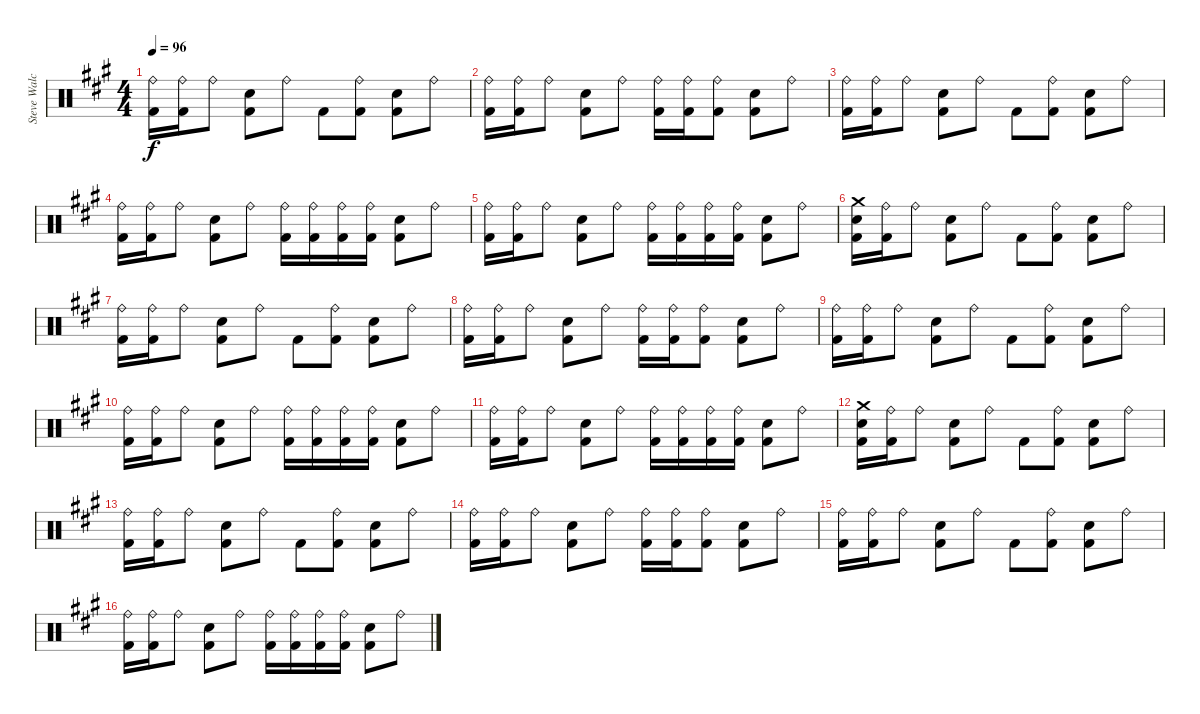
\track ("Steve Walchoz" "Steve Walc") {instrument percussion}
\staff {score}
\articulation defaults
\ts (4 4)
\tempo 96
\clef neutral
\ks a
("Ride (bell)" "Kick (hit) 2").16{dy f} ("Ride (bell)" "Kick (hit) 2").16 "Ride (bell)".8 ("Snare (hit) 2" "Kick (hit) 2").8 "Ride (bell)".8 "Kick (hit) 2".8 ("Ride (bell)" "Kick (hit) 2").8 ("Snare (hit) 2" "Kick (hit) 2").8 "Ride (bell)".8 |
("Ride (bell)" "Kick (hit) 2").16 ("Ride (bell)" "Kick (hit) 2").16 "Ride (bell)".8 ("Snare (hit) 2" "Kick (hit) 2").8 "Ride (bell)".8 ("Ride (bell)" "Kick (hit) 2").16 ("Ride (bell)" "Kick (hit) 2").16 ("Ride (bell)" "Kick (hit) 2").8 ("Snare (hit) 2" "Kick (hit) 2").8 "Ride (bell)".8 |
("Ride (bell)" "Kick (hit) 2").16 ("Ride (bell)" "Kick (hit) 2").16 "Ride (bell)".8 ("Snare (hit) 2" "Kick (hit) 2").8 "Ride (bell)".8 "Kick (hit) 2".8 ("Ride (bell)" "Kick (hit) 2").8 ("Snare (hit) 2" "Kick (hit) 2").8 "Ride (bell)".8 |
("Ride (bell)" "Kick (hit) 2").16 ("Ride (bell)" "Kick (hit) 2").16 "Ride (bell)".8 ("Snare (hit) 2" "Kick (hit) 2").8 "Ride (bell)".8 ("Ride (bell)" "Kick (hit) 2").16 ("Ride (bell)" "Kick (hit) 2").16 ("Ride (bell)" "Kick (hit) 2").16 ("Ride (bell)" "Kick (hit) 2").16 ("Snare (hit) 2" "Kick (hit) 2").8 "Ride (bell)".8 |
("Ride (bell)" "Kick (hit) 2").16 ("Ride (bell)" "Kick (hit) 2").16 "Ride (bell)".8 ("Snare (hit) 2" "Kick (hit) 2").8 "Ride (bell)".8 ("Ride (bell)" "Kick (hit) 2").16 ("Ride (bell)" "Kick (hit) 2").16 ("Ride (bell)" "Kick (hit) 2").16 ("Ride (bell)" "Kick (hit) 2").16 ("Snare (hit) 2" "Kick (hit) 2").8 "Ride (bell)".8 |
("Crash medium (hit)" "Snare (hit) 2" "Kick (hit) 2").16 ("Ride (bell)" "Kick (hit) 2").16 "Ride (bell)".8 ("Snare (hit) 2" "Kick (hit) 2").8 "Ride (bell)".8 "Kick (hit) 2".8 ("Ride (bell)" "Kick (hit) 2").8 ("Snare (hit) 2" "Kick (hit) 2").8 "Ride (bell)".8 |
("Ride (bell)" "Kick (hit) 2").16 ("Ride (bell)" "Kick (hit) 2").16 "Ride (bell)".8 ("Snare (hit) 2" "Kick (hit) 2").8 "Ride (bell)".8 "Kick (hit) 2".8 ("Ride (bell)" "Kick (hit) 2").8 ("Snare (hit) 2" "Kick (hit) 2").8 "Ride (bell)".8 |
("Ride (bell)" "Kick (hit) 2").16 ("Ride (bell)" "Kick (hit) 2").16 "Ride (bell)".8 ("Snare (hit) 2" "Kick (hit) 2").8 "Ride (bell)".8 ("Ride (bell)" "Kick (hit) 2").16 ("Ride (bell)" "Kick (hit) 2").16 ("Ride (bell)" "Kick (hit) 2").8 ("Snare (hit) 2" "Kick (hit) 2").8 "Ride (bell)".8 |
("Ride (bell)" "Kick (hit) 2").16 ("Ride (bell)" "Kick (hit) 2").16 "Ride (bell)".8 ("Snare (hit) 2" "Kick (hit) 2").8 "Ride (bell)".8 "Kick (hit) 2".8 ("Ride (bell)" "Kick (hit) 2").8 ("Snare (hit) 2" "Kick (hit) 2").8 "Ride (bell)".8 |
("Ride (bell)" "Kick (hit) 2").16 ("Ride (bell)" "Kick (hit) 2").16 "Ride (bell)".8 ("Snare (hit) 2" "Kick (hit) 2").8 "Ride (bell)".8 ("Ride (bell)" "Kick (hit) 2").16 ("Ride (bell)" "Kick (hit) 2").16 ("Ride (bell)" "Kick (hit) 2").16 ("Ride (bell)" "Kick (hit) 2").16 ("Snare (hit) 2" "Kick (hit) 2").8 "Ride (bell)".8 |
("Ride (bell)" "Kick (hit) 2").16 ("Ride (bell)" "Kick (hit) 2").16 "Ride (bell)".8 ("Snare (hit) 2" "Kick (hit) 2").8 "Ride (bell)".8 ("Ride (bell)" "Kick (hit) 2").16 ("Ride (bell)" "Kick (hit) 2").16 ("Ride (bell)" "Kick (hit) 2").16 ("Ride (bell)" "Kick (hit) 2").16 ("Snare (hit) 2" "Kick (hit) 2").8 "Ride (bell)".8 |
("Crash medium (hit)" "Snare (hit) 2" "Kick (hit) 2").16 ("Ride (bell)" "Kick (hit) 2").16 "Ride (bell)".8 ("Snare (hit) 2" "Kick (hit) 2").8 "Ride (bell)".8 "Kick (hit) 2".8 ("Ride (bell)" "Kick (hit) 2").8 ("Snare (hit) 2" "Kick (hit) 2").8 "Ride (bell)".8 |
("Ride (bell)" "Kick (hit) 2").16 ("Ride (bell)" "Kick (hit) 2").16 "Ride (bell)".8 ("Snare (hit) 2" "Kick (hit) 2").8 "Ride (bell)".8 "Kick (hit) 2".8 ("Ride (bell)" "Kick (hit) 2").8 ("Snare (hit) 2" "Kick (hit) 2").8 "Ride (bell)".8 |
("Ride (bell)" "Kick (hit) 2").16 ("Ride (bell)" "Kick (hit) 2").16 "Ride (bell)".8 ("Snare (hit) 2" "Kick (hit) 2").8 "Ride (bell)".8 ("Ride (bell)" "Kick (hit) 2").16 ("Ride (bell)" "Kick (hit) 2").16 ("Ride (bell)" "Kick (hit) 2").8 ("Snare (hit) 2" "Kick (hit) 2").8 "Ride (bell)".8 |
("Ride (bell)" "Kick (hit) 2").16 ("Ride (bell)" "Kick (hit) 2").16 "Ride (bell)".8 ("Snare (hit) 2" "Kick (hit) 2").8 "Ride (bell)".8 "Kick (hit) 2".8 ("Ride (bell)" "Kick (hit) 2").8 ("Snare (hit) 2" "Kick (hit) 2").8 "Ride (bell)".8 |
("Ride (bell)" "Kick (hit) 2").16 ("Ride (bell)" "Kick (hit) 2").16 "Ride (bell)".8 ("Snare (hit) 2" "Kick (hit) 2").8 "Ride (bell)".8 ("Ride (bell)" "Kick (hit) 2").16 ("Ride (bell)" "Kick (hit) 2").16 ("Ride (bell)" "Kick (hit) 2").16 ("Ride (bell)" "Kick (hit) 2").16 ("Snare (hit) 2" "Kick (hit) 2").8 "Ride (bell)".8
